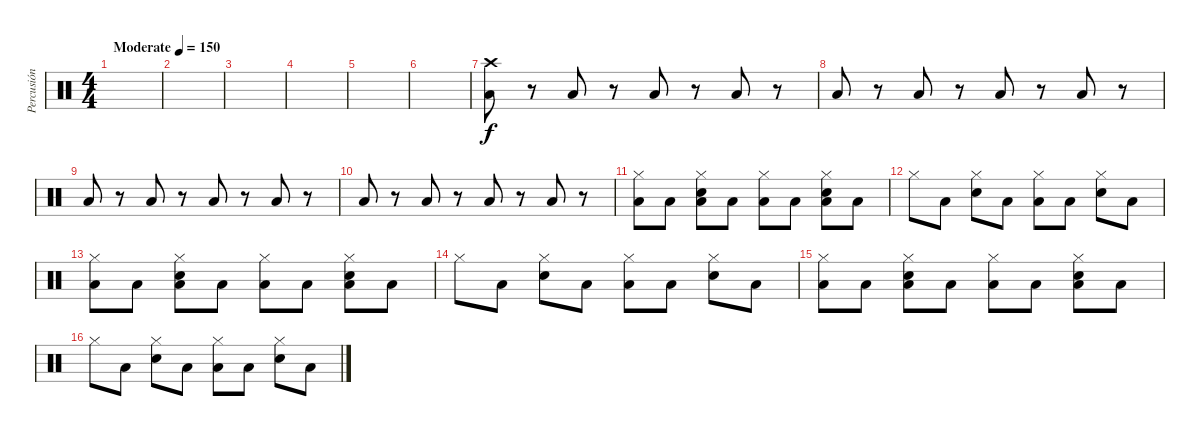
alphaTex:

\track ("Percusión" "Percusión") {instrument percussion}
\staff {score}
\articulation defaults
\ts (4 4)
\tempo (150 "Moderate")
\clef neutral
\ks c
|
|
|
|
|
|
("Crash high (hit)" "Low Tom (hit)").8 r.8 "Low Tom (hit)".8 r.8 "Low Tom (hit)".8 r.8 "Low Tom (hit)".8 r.8 |
"Low Tom (hit)".8 r.8 "Low Tom (hit)".8 r.8 "Low Tom (hit)".8 r.8 "Low Tom (hit)".8 r.8 |
"Low Tom (hit)".8 r.8 "Low Tom (hit)".8 r.8 "Low Tom (hit)".8 r.8 "Low Tom (hit)".8 r.8 |
"Low Tom (hit)".8 r.8 "Low Tom (hit)".8 r.8 "Low Tom (hit)".8 r.8 "Low Tom (hit)".8 r.8 |
("Hi-Hat (closed)" "Low Tom (hit)").8 "Low Tom (hit)".8 ("Low Tom (hit)" "Hi-Hat (closed)" "Snare (hit) 2").8 "Low Tom (hit)".8 ("Hi-Hat (closed)" "Low Tom (hit)").8 "Low Tom (hit)".8 ("Low Tom (hit)" "Hi-Hat (closed)" "Snare (hit) 2").8 "Low Tom (hit)".8 |
"Hi-Hat (closed)".8 "Low Tom (hit)".8 ("Hi-Hat (closed)" "Snare (hit) 2").8 "Low Tom (hit)".8 ("Hi-Hat (closed)" "Low Tom (hit)").8 "Low Tom (hit)".8 ("Hi-Hat (closed)" "Snare (hit) 2").8 "Low Tom (hit)".8 |
("Hi-Hat (closed)" "Low Tom (hit)").8 "Low Tom (hit)".8 ("Low Tom (hit)" "Hi-Hat (closed)" "Snare (hit) 2").8 "Low Tom (hit)".8 ("Hi-Hat (closed)" "Low Tom (hit)").8 "Low Tom (hit)".8 ("Low Tom (hit)" "Hi-Hat (closed)" "Snare (hit) 2").8 "Low Tom (hit)".8 |
"Hi-Hat (closed)".8 "Low Tom (hit)".8 ("Hi-Hat (closed)" "Snare (hit) 2").8 "Low Tom (hit)".8 ("Hi-Hat (closed)" "Low Tom (hit)").8 "Low Tom (hit)".8 ("Hi-Hat (closed)" "Snare (hit) 2").8 "Low Tom (hit)".8 |
("Hi-Hat (closed)" "Low Tom (hit)").8 "Low Tom (hit)".8 ("Low Tom (hit)" "Hi-Hat (closed)" "Snare (hit) 2").8 "Low Tom (hit)".8 ("Hi-Hat (closed)" "Low Tom (hit)").8 "Low Tom (hit)".8 ("Low Tom (hit)" "Hi-Hat (closed)" "Snare (hit) 2").8 "Low Tom (hit)".8 |
"Hi-Hat (closed)".8 "Low Tom (hit)".8 ("Hi-Hat (closed)" "Snare (hit) 2").8 "Low Tom (hit)".8 ("Hi-Hat (closed)" "Low Tom (hit)").8 "Low Tom (hit)".8 ("Hi-Hat (closed)" "Snare (hit) 2").8 "Low Tom (hit)".8
